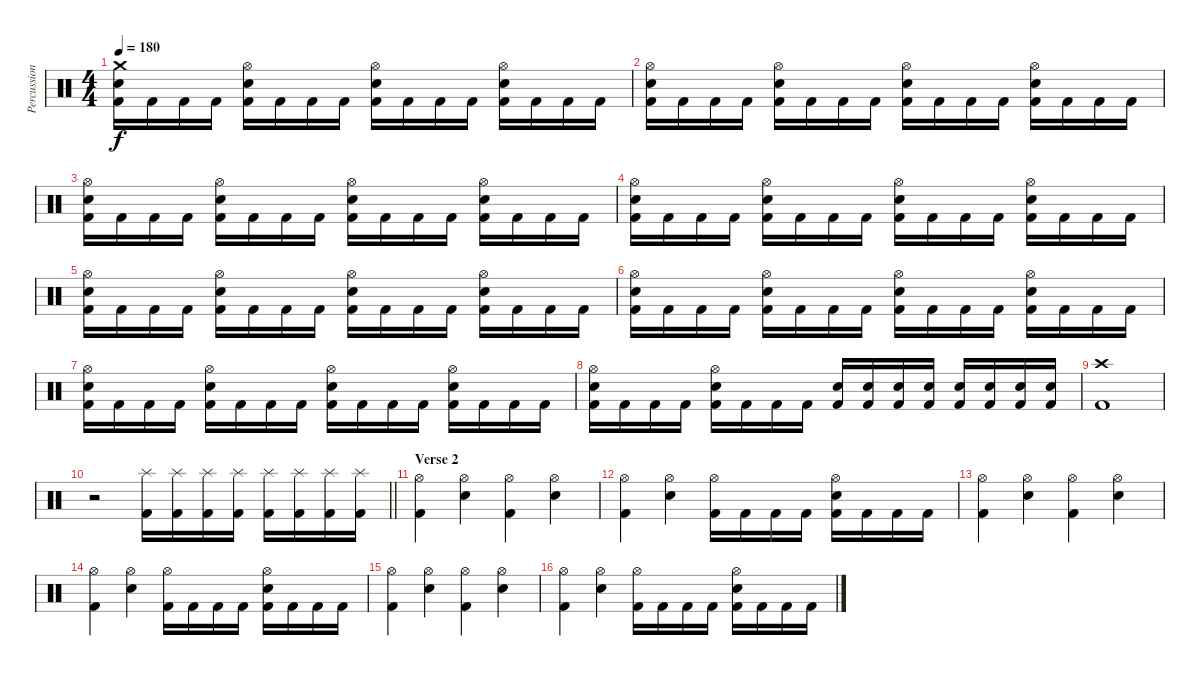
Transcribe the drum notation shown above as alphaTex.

\track ("Percussion" "Percussion") {instrument percussion}
\staff {score}
\articulation defaults
\ts (4 4)
\tempo 180
\clef neutral
\ks c
("Crash medium (hit)" "Electric Snare (hit)" "Kick (hit) 2").16{dy f} "Kick (hit) 2".16 "Kick (hit) 2".16 "Kick (hit) 2".16 ("Hi-Hat (open)" "Electric Snare (hit)" "Kick (hit) 2").16 "Kick (hit) 2".16 "Kick (hit) 2".16 "Kick (hit) 2".16 ("Hi-Hat (open)" "Electric Snare (hit)" "Kick (hit) 2").16 "Kick (hit) 2".16 "Kick (hit) 2".16 "Kick (hit) 2".16 ("Hi-Hat (open)" "Electric Snare (hit)" "Kick (hit) 2").16 "Kick (hit) 2".16 "Kick (hit) 2".16 "Kick (hit) 2".16 |
("Hi-Hat (open)" "Electric Snare (hit)" "Kick (hit) 2").16 "Kick (hit) 2".16 "Kick (hit) 2".16 "Kick (hit) 2".16 ("Hi-Hat (open)" "Electric Snare (hit)" "Kick (hit) 2").16 "Kick (hit) 2".16 "Kick (hit) 2".16 "Kick (hit) 2".16 ("Hi-Hat (open)" "Electric Snare (hit)" "Kick (hit) 2").16 "Kick (hit) 2".16 "Kick (hit) 2".16 "Kick (hit) 2".16 ("Hi-Hat (open)" "Electric Snare (hit)" "Kick (hit) 2").16 "Kick (hit) 2".16 "Kick (hit) 2".16 "Kick (hit) 2".16 |
("Hi-Hat (open)" "Electric Snare (hit)" "Kick (hit) 2").16 "Kick (hit) 2".16 "Kick (hit) 2".16 "Kick (hit) 2".16 ("Hi-Hat (open)" "Electric Snare (hit)" "Kick (hit) 2").16 "Kick (hit) 2".16 "Kick (hit) 2".16 "Kick (hit) 2".16 ("Hi-Hat (open)" "Electric Snare (hit)" "Kick (hit) 2").16 "Kick (hit) 2".16 "Kick (hit) 2".16 "Kick (hit) 2".16 ("Hi-Hat (open)" "Electric Snare (hit)" "Kick (hit) 2").16 "Kick (hit) 2".16 "Kick (hit) 2".16 "Kick (hit) 2".16 |
("Hi-Hat (open)" "Electric Snare (hit)" "Kick (hit) 2").16 "Kick (hit) 2".16 "Kick (hit) 2".16 "Kick (hit) 2".16 ("Hi-Hat (open)" "Electric Snare (hit)" "Kick (hit) 2").16 "Kick (hit) 2".16 "Kick (hit) 2".16 "Kick (hit) 2".16 ("Hi-Hat (open)" "Electric Snare (hit)" "Kick (hit) 2").16 "Kick (hit) 2".16 "Kick (hit) 2".16 "Kick (hit) 2".16 ("Hi-Hat (open)" "Electric Snare (hit)" "Kick (hit) 2").16 "Kick (hit) 2".16 "Kick (hit) 2".16 "Kick (hit) 2".16 |
("Hi-Hat (open)" "Electric Snare (hit)" "Kick (hit) 2").16 "Kick (hit) 2".16 "Kick (hit) 2".16 "Kick (hit) 2".16 ("Hi-Hat (open)" "Electric Snare (hit)" "Kick (hit) 2").16 "Kick (hit) 2".16 "Kick (hit) 2".16 "Kick (hit) 2".16 ("Hi-Hat (open)" "Electric Snare (hit)" "Kick (hit) 2").16 "Kick (hit) 2".16 "Kick (hit) 2".16 "Kick (hit) 2".16 ("Hi-Hat (open)" "Electric Snare (hit)" "Kick (hit) 2").16 "Kick (hit) 2".16 "Kick (hit) 2".16 "Kick (hit) 2".16 |
("Hi-Hat (open)" "Electric Snare (hit)" "Kick (hit) 2").16 "Kick (hit) 2".16 "Kick (hit) 2".16 "Kick (hit) 2".16 ("Hi-Hat (open)" "Electric Snare (hit)" "Kick (hit) 2").16 "Kick (hit) 2".16 "Kick (hit) 2".16 "Kick (hit) 2".16 ("Hi-Hat (open)" "Electric Snare (hit)" "Kick (hit) 2").16 "Kick (hit) 2".16 "Kick (hit) 2".16 "Kick (hit) 2".16 ("Hi-Hat (open)" "Electric Snare (hit)" "Kick (hit) 2").16 "Kick (hit) 2".16 "Kick (hit) 2".16 "Kick (hit) 2".16 |
("Hi-Hat (open)" "Electric Snare (hit)" "Kick (hit) 2").16 "Kick (hit) 2".16 "Kick (hit) 2".16 "Kick (hit) 2".16 ("Hi-Hat (open)" "Electric Snare (hit)" "Kick (hit) 2").16 "Kick (hit) 2".16 "Kick (hit) 2".16 "Kick (hit) 2".16 ("Hi-Hat (open)" "Electric Snare (hit)" "Kick (hit) 2").16 "Kick (hit) 2".16 "Kick (hit) 2".16 "Kick (hit) 2".16 ("Hi-Hat (open)" "Electric Snare (hit)" "Kick (hit) 2").16 "Kick (hit) 2".16 "Kick (hit) 2".16 "Kick (hit) 2".16 |
("Hi-Hat (open)" "Electric Snare (hit)" "Kick (hit) 2").16 "Kick (hit) 2".16 "Kick (hit) 2".16 "Kick (hit) 2".16 ("Hi-Hat (open)" "Electric Snare (hit)" "Kick (hit) 2").16 "Kick (hit) 2".16 "Kick (hit) 2".16 "Kick (hit) 2".16 ("Electric Snare (hit)" "Kick (hit) 2").16 ("Electric Snare (hit)" "Kick (hit) 2").16 ("Electric Snare (hit)" "Kick (hit) 2").16 ("Electric Snare (hit)" "Kick (hit) 2").16 ("Electric Snare (hit)" "Kick (hit) 2").16 ("Electric Snare (hit)" "Kick (hit) 2").16 ("Electric Snare (hit)" "Kick (hit) 2").16 ("Electric Snare (hit)" "Kick (hit) 2").16 |
("Crash high (hit)" "Kick (hit) 2").1 |
\barLineRight lightlight
r.2 ("Splash (hit)" "Kick (hit) 2").16 ("Splash (hit)" "Kick (hit) 2").16 ("Splash (hit)" "Kick (hit) 2").16 ("Splash (hit)" "Kick (hit) 2").16 ("Splash (hit)" "Kick (hit) 2").16 ("Splash (hit)" "Kick (hit) 2").16 ("Splash (hit)" "Kick (hit) 2").16 ("Splash (hit)" "Kick (hit) 2").16 |
\section ("" "Verse 2")
("Hi-Hat (open)" "Kick (hit) 2").4 ("Hi-Hat (open)" "Electric Snare (hit)").4 ("Hi-Hat (open)" "Kick (hit) 2").4 ("Hi-Hat (open)" "Electric Snare (hit)").4 |
("Hi-Hat (open)" "Kick (hit) 2").4 ("Hi-Hat (open)" "Electric Snare (hit)").4 ("Hi-Hat (open)" "Kick (hit) 2").16 "Kick (hit) 2".16 "Kick (hit) 2".16 "Kick (hit) 2".16 ("Hi-Hat (open)" "Electric Snare (hit)" "Kick (hit) 2").16 "Kick (hit) 2".16 "Kick (hit) 2".16 "Kick (hit) 2".16 |
("Hi-Hat (open)" "Kick (hit) 2").4 ("Hi-Hat (open)" "Electric Snare (hit)").4 ("Hi-Hat (open)" "Kick (hit) 2").4 ("Hi-Hat (open)" "Electric Snare (hit)").4 |
("Hi-Hat (open)" "Kick (hit) 2").4 ("Hi-Hat (open)" "Electric Snare (hit)").4 ("Hi-Hat (open)" "Kick (hit) 2").16 "Kick (hit) 2".16 "Kick (hit) 2".16 "Kick (hit) 2".16 ("Hi-Hat (open)" "Electric Snare (hit)" "Kick (hit) 2").16 "Kick (hit) 2".16 "Kick (hit) 2".16 "Kick (hit) 2".16 |
("Hi-Hat (open)" "Kick (hit) 2").4 ("Hi-Hat (open)" "Electric Snare (hit)").4 ("Hi-Hat (open)" "Kick (hit) 2").4 ("Hi-Hat (open)" "Electric Snare (hit)").4 |
("Hi-Hat (open)" "Kick (hit) 2").4 ("Hi-Hat (open)" "Electric Snare (hit)").4 ("Hi-Hat (open)" "Kick (hit) 2").16 "Kick (hit) 2".16 "Kick (hit) 2".16 "Kick (hit) 2".16 ("Hi-Hat (open)" "Electric Snare (hit)" "Kick (hit) 2").16 "Kick (hit) 2".16 "Kick (hit) 2".16 "Kick (hit) 2".16
